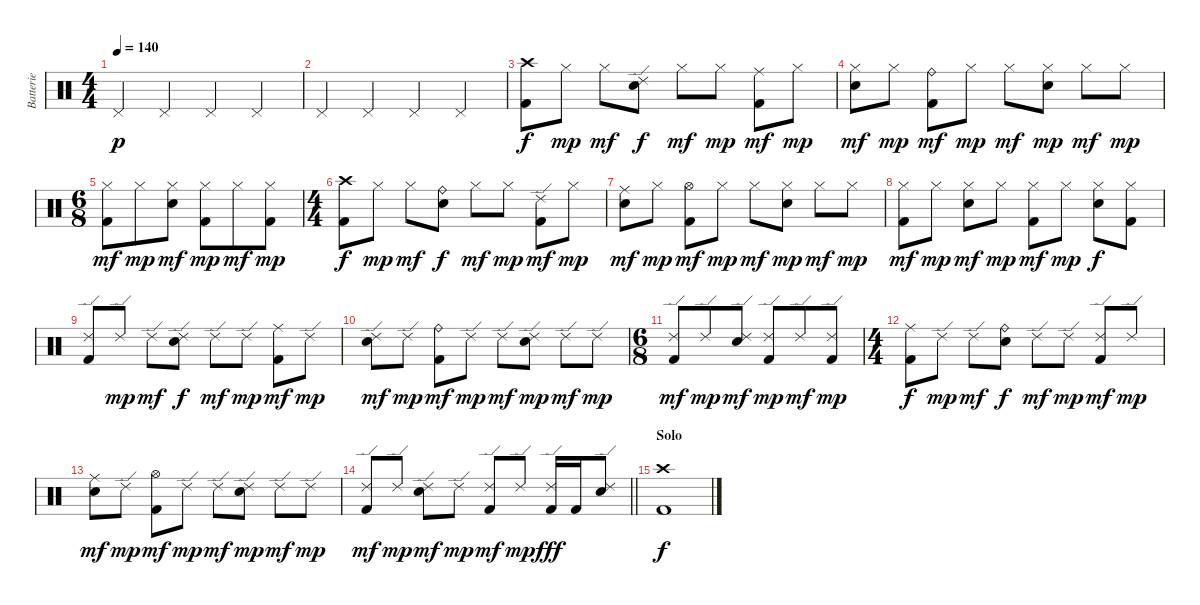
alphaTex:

\track ("Batterie" "Batterie") {instrument percussion}
\staff {score}
\articulation defaults
\ts (4 4)
\tempo 140
\clef neutral
\ks c "Pedal Hi-Hat (hit)".4{dy p} "Pedal Hi-Hat (hit)".4 "Pedal Hi-Hat (hit)".4 "Pedal Hi-Hat (hit)".4
|
"Pedal Hi-Hat (hit)".4 "Pedal Hi-Hat (hit)".4 "Pedal Hi-Hat (hit)".4 "Pedal Hi-Hat (hit)".4 |
("Crash high (hit)" "Kick (hit) 2").8{dy f} "Hi-Hat (closed)".8{dy mp} "Hi-Hat (closed)".8{dy mf} ("Ride (edge) 2" "Electric Snare (hit)").8{dy f} "Hi-Hat (closed)".8{dy mf} "Hi-Hat (closed)".8{dy mp} ("Ride (middle)" "Kick (hit) 2").8{dy mf} "Hi-Hat (closed)".8{dy mp} |
("Hi-Hat (closed)" "Electric Snare (hit)").8{dy mf} "Hi-Hat (closed)".8{dy mp} ("Ride (bell)" "Kick (hit) 2").8{dy mf} "Hi-Hat (closed)".8{dy mp} "Hi-Hat (closed)".8{dy mf} ("Hi-Hat (closed)" "Electric Snare (hit)").8{dy mp} "Hi-Hat (closed)".8{dy mf} "Hi-Hat (closed)".8{dy mp} |
\ts (6 8)
("Hi-Hat (closed)" "Kick (hit) 2").8{dy mf} "Hi-Hat (closed)".8{dy mp} ("Hi-Hat (closed)" "Electric Snare (hit)").8{dy mf} ("Hi-Hat (closed)" "Kick (hit) 2").8{dy mp} "Hi-Hat (closed)".8{dy mf} ("Hi-Hat (closed)" "Kick (hit) 2").8{dy mp} |
\ts (4 4)
("Crash high (hit)" "Kick (hit) 2").8{dy f} "Hi-Hat (closed)".8{dy mp} "Hi-Hat (closed)".8{dy mf} ("Ride (bell)" "Electric Snare (hit)").8{dy f} "Hi-Hat (closed)".8{dy mf} "Hi-Hat (closed)".8{dy mp} ("Ride (edge) 2" "Kick (hit) 2").8{dy mf} "Hi-Hat (closed)".8{dy mp} |
("Ride (middle)" "Electric Snare (hit)").8{dy mf} "Hi-Hat (closed)".8{dy mp} ("Hi-Hat (open)" "Kick (hit) 2").8{dy mf} "Hi-Hat (closed)".8{dy mp} "Hi-Hat (closed)".8{dy mf} ("Hi-Hat (closed)" "Electric Snare (hit)").8{dy mp} "Hi-Hat (closed)".8{dy mf} "Hi-Hat (closed)".8{dy mp} |
("Hi-Hat (closed)" "Kick (hit) 2").8{dy mf} "Hi-Hat (closed)".8{dy mp} ("Hi-Hat (closed)" "Electric Snare (hit)").8{dy mf} "Hi-Hat (closed)".8{dy mp} ("Hi-Hat (closed)" "Kick (hit) 2").8{dy mf} "Hi-Hat (closed)".8{dy mp} ("Hi-Hat (closed)" "Electric Snare (hit)").8{dy f} ("Hi-Hat (closed)" "Kick (hit) 2").8 |
("Ride (edge) 2" "Kick (hit) 2").8 "Ride (edge) 2".8{dy mp} "Ride (edge) 2".8{dy mf} ("Ride (edge) 2" "Electric Snare (hit)").8{dy f} "Ride (edge) 2".8{dy mf} "Ride (edge) 2".8{dy mp} ("Ride (middle)" "Kick (hit) 2").8{dy mf} "Ride (edge) 2".8{dy mp} |
("Ride (edge) 2" "Electric Snare (hit)").8{dy mf} "Ride (edge) 2".8{dy mp} ("Ride (bell)" "Kick (hit) 2").8{dy mf} "Ride (edge) 2".8{dy mp} "Ride (edge) 2".8{dy mf} ("Ride (edge) 2" "Electric Snare (hit)").8{dy mp} "Ride (edge) 2".8{dy mf} "Ride (edge) 2".8{dy mp} |
\ts (6 8)
("Ride (edge) 2" "Kick (hit) 2").8{dy mf} "Ride (edge) 2".8{dy mp} ("Ride (edge) 2" "Electric Snare (hit)").8{dy mf} ("Ride (edge) 2" "Kick (hit) 2").8{dy mp} "Ride (edge) 2".8{dy mf} ("Ride (edge) 2" "Kick (hit) 2").8{dy mp} |
\ts (4 4)
("Ride (middle)" "Kick (hit) 2").8{dy f} "Ride (edge) 2".8{dy mp} "Ride (edge) 2".8{dy mf} ("Ride (bell)" "Electric Snare (hit)").8{dy f} "Ride (edge) 2".8{dy mf} "Ride (edge) 2".8{dy mp} ("Ride (edge) 2" "Kick (hit) 2").8{dy mf} "Ride (edge) 2".8{dy mp} |
("Ride (middle)" "Electric Snare (hit)").8{dy mf} "Ride (edge) 2".8{dy mp} ("Hi-Hat (open)" "Kick (hit) 2").8{dy mf} "Ride (edge) 2".8{dy mp} "Ride (edge) 2".8{dy mf} ("Ride (edge) 2" "Electric Snare (hit)").8{dy mp} "Ride (edge) 2".8{dy mf} "Ride (edge) 2".8{dy mp} |
\barLineRight lightlight
("Ride (edge) 2" "Kick (hit) 2").8{dy mf} "Ride (edge) 2".8{dy mp} ("Ride (edge) 2" "Electric Snare (hit)").8{dy mf} "Ride (edge) 2".8{dy mp} ("Ride (edge) 2" "Kick (hit) 2").8{dy mf} "Ride (edge) 2".8{dy mp} ("Ride (edge) 2" "Kick (hit) 2").16{dy fff} "Kick (hit) 2".16 ("Ride (edge) 2" "Electric Snare (hit)").8 |
\section ("" "Solo")
("Crash high (hit)" "Kick (hit) 2").1{dy f}
